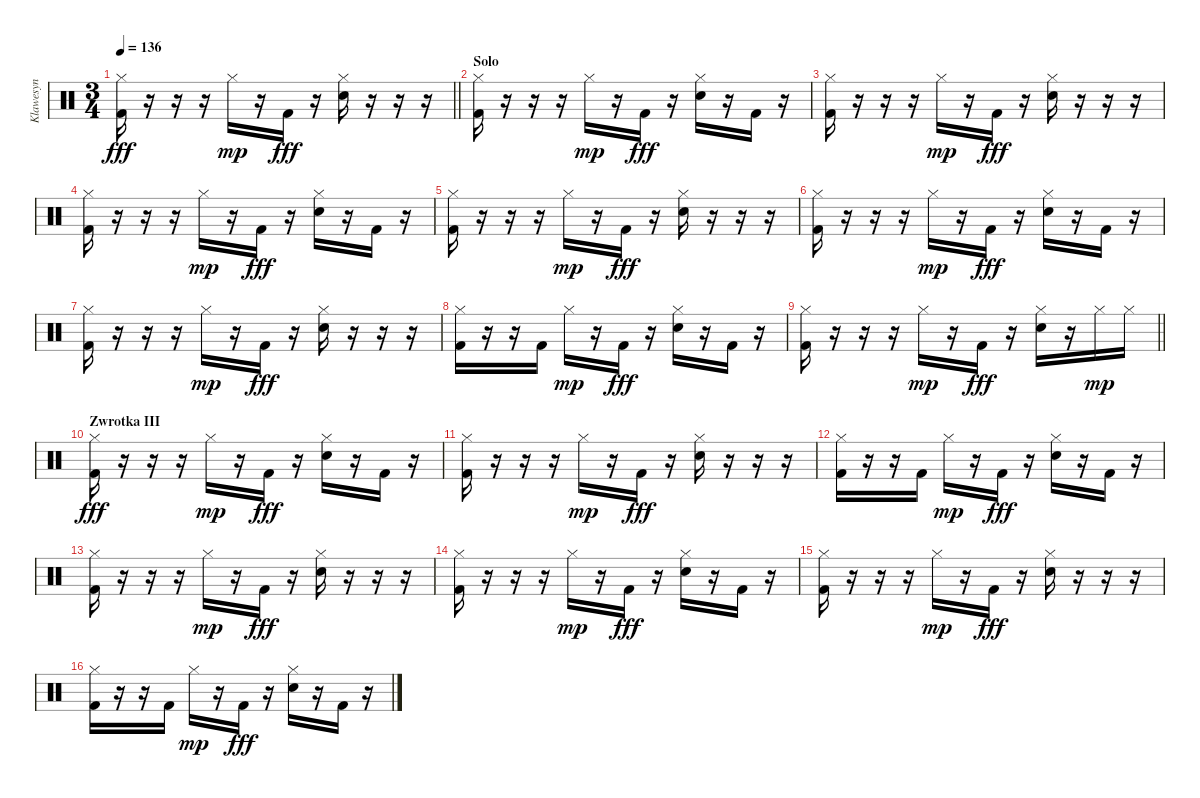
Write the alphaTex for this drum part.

\track ("Klawesyn" "Klawesyn") {instrument percussion}
\staff {score}
\articulation defaults
\ts (3 4)
\tempo 136
\clef neutral
\barLineRight lightlight
\ks c
("Hi-Hat (closed)" "Kick (hit) 2").16{dy fff} r.16 r.16 r.16 "Hi-Hat (closed)".16{dy mp} r.16 "Kick (hit) 2".16{dy fff} r.16 ("Hi-Hat (closed)" "Snare (hit) 2").16 r.16 r.16 r.16 |
\section ("" "Solo")
("Hi-Hat (closed)" "Kick (hit) 2").16 r.16 r.16 r.16 "Hi-Hat (closed)".16{dy mp} r.16 "Kick (hit) 2".16{dy fff} r.16 ("Hi-Hat (closed)" "Snare (hit) 2").16 r.16 "Kick (hit) 2".16 r.16 |
("Hi-Hat (closed)" "Kick (hit) 2").16 r.16 r.16 r.16 "Hi-Hat (closed)".16{dy mp} r.16 "Kick (hit) 2".16{dy fff} r.16 ("Hi-Hat (closed)" "Snare (hit) 2").16 r.16 r.16 r.16 |
("Hi-Hat (closed)" "Kick (hit) 2").16 r.16 r.16 r.16 "Hi-Hat (closed)".16{dy mp} r.16 "Kick (hit) 2".16{dy fff} r.16 ("Hi-Hat (closed)" "Snare (hit) 2").16 r.16 "Kick (hit) 2".16 r.16 |
("Hi-Hat (closed)" "Kick (hit) 2").16 r.16 r.16 r.16 "Hi-Hat (closed)".16{dy mp} r.16 "Kick (hit) 2".16{dy fff} r.16 ("Hi-Hat (closed)" "Snare (hit) 2").16 r.16 r.16 r.16 |
("Hi-Hat (closed)" "Kick (hit) 2").16 r.16 r.16 r.16 "Hi-Hat (closed)".16{dy mp} r.16 "Kick (hit) 2".16{dy fff} r.16 ("Hi-Hat (closed)" "Snare (hit) 2").16 r.16 "Kick (hit) 2".16 r.16 |
("Hi-Hat (closed)" "Kick (hit) 2").16 r.16 r.16 r.16 "Hi-Hat (closed)".16{dy mp} r.16 "Kick (hit) 2".16{dy fff} r.16 ("Hi-Hat (closed)" "Snare (hit) 2").16 r.16 r.16 r.16 |
("Hi-Hat (closed)" "Kick (hit) 2").16 r.16 r.16 "Kick (hit) 2".16 "Hi-Hat (closed)".16{dy mp} r.16 "Kick (hit) 2".16{dy fff} r.16 ("Hi-Hat (closed)" "Snare (hit) 2").16 r.16 "Kick (hit) 2".16 r.16 |
\barLineRight lightlight
("Hi-Hat (closed)" "Kick (hit) 2").16 r.16 r.16 r.16 "Hi-Hat (closed)".16{dy mp} r.16 "Kick (hit) 2".16{dy fff} r.16 ("Hi-Hat (closed)" "Snare (hit) 2").16 r.16 "Hi-Hat (closed)".16{dy mp} "Hi-Hat (closed)".16 |
\section ("" "Zwrotka III")
("Hi-Hat (closed)" "Kick (hit) 2").16{dy fff} r.16 r.16 r.16 "Hi-Hat (closed)".16{dy mp} r.16 "Kick (hit) 2".16{dy fff} r.16 ("Hi-Hat (closed)" "Snare (hit) 2").16 r.16 "Kick (hit) 2".16 r.16 |
("Hi-Hat (closed)" "Kick (hit) 2").16 r.16 r.16 r.16 "Hi-Hat (closed)".16{dy mp} r.16 "Kick (hit) 2".16{dy fff} r.16 ("Hi-Hat (closed)" "Snare (hit) 2").16 r.16 r.16 r.16 |
("Hi-Hat (closed)" "Kick (hit) 2").16 r.16 r.16 "Kick (hit) 2".16 "Hi-Hat (closed)".16{dy mp} r.16 "Kick (hit) 2".16{dy fff} r.16 ("Hi-Hat (closed)" "Snare (hit) 2").16 r.16 "Kick (hit) 2".16 r.16 |
("Hi-Hat (closed)" "Kick (hit) 2").16 r.16 r.16 r.16 "Hi-Hat (closed)".16{dy mp} r.16 "Kick (hit) 2".16{dy fff} r.16 ("Hi-Hat (closed)" "Snare (hit) 2").16 r.16 r.16 r.16 |
("Hi-Hat (closed)" "Kick (hit) 2").16 r.16 r.16 r.16 "Hi-Hat (closed)".16{dy mp} r.16 "Kick (hit) 2".16{dy fff} r.16 ("Hi-Hat (closed)" "Snare (hit) 2").16 r.16 "Kick (hit) 2".16 r.16 |
("Hi-Hat (closed)" "Kick (hit) 2").16 r.16 r.16 r.16 "Hi-Hat (closed)".16{dy mp} r.16 "Kick (hit) 2".16{dy fff} r.16 ("Hi-Hat (closed)" "Snare (hit) 2").16 r.16 r.16 r.16 |
("Hi-Hat (closed)" "Kick (hit) 2").16 r.16 r.16 "Kick (hit) 2".16 "Hi-Hat (closed)".16{dy mp} r.16 "Kick (hit) 2".16{dy fff} r.16 ("Hi-Hat (closed)" "Snare (hit) 2").16 r.16 "Kick (hit) 2".16 r.16
